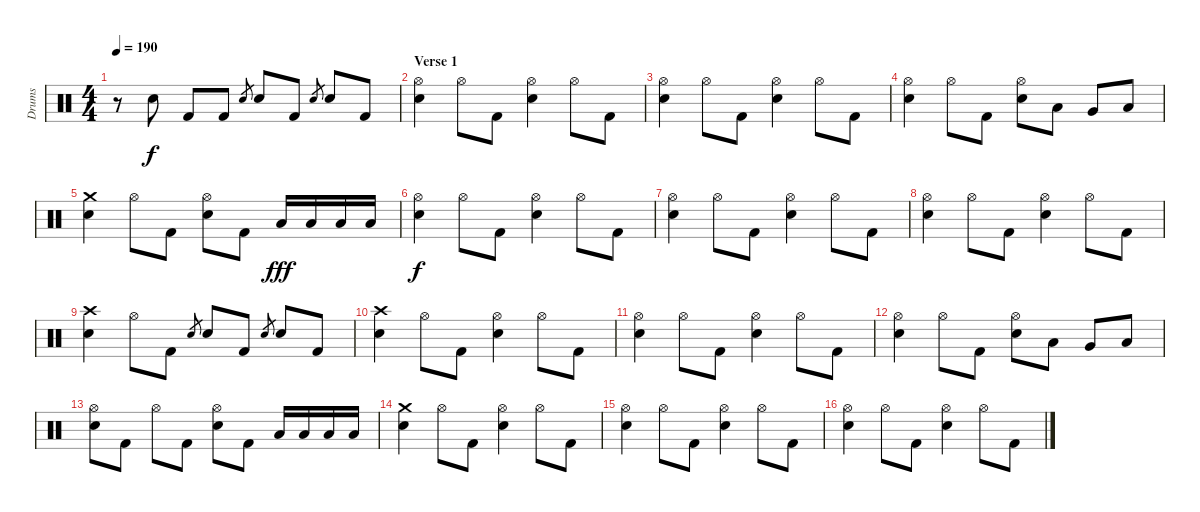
\track ("Drums" "Drums") {instrument percussion}
\staff {score}
\articulation defaults
\ts (4 4)
\tempo 190
\clef neutral
\ks c
r.8{dy f} "Electric Snare (hit)".8 "Kick (hit) 2".8 "Kick (hit) 2".8 "Electric Snare (hit)".8{gr} "Electric Snare (hit)".8 "Kick (hit) 2".8 "Electric Snare (hit)".8{gr} "Electric Snare (hit)".8 "Kick (hit) 2".8 |
\section ("" "Verse 1")
("Hi-Hat (open)" "Electric Snare (hit)").4 "Hi-Hat (open)".8 "Kick (hit) 2".8 ("Hi-Hat (open)" "Electric Snare (hit)").4 "Hi-Hat (open)".8 "Kick (hit) 2".8 |
("Hi-Hat (open)" "Electric Snare (hit)").4 "Hi-Hat (open)".8 "Kick (hit) 2".8 ("Hi-Hat (open)" "Electric Snare (hit)").4 "Hi-Hat (open)".8 "Kick (hit) 2".8 |
("Hi-Hat (open)" "Electric Snare (hit)").4 "Hi-Hat (open)".8 "Kick (hit) 2".8 ("Hi-Hat (open)" "Electric Snare (hit)").8 "Low Tom (hit)".8 "Very Low Tom (hit)".8 "Low Floor Tom (hit)".8 |
("Crash medium (hit)" "Electric Snare (hit)").4 "Hi-Hat (open)".8 "Kick (hit) 2".8 ("Hi-Hat (open)" "Electric Snare (hit)").8 "Kick (hit) 2".8 "Low Floor Tom (hit)".16{dy fff} "Low Floor Tom (hit)".16 "Low Floor Tom (hit)".16 "Low Floor Tom (hit)".16 |
("Hi-Hat (open)" "Electric Snare (hit)").4{dy f} "Hi-Hat (open)".8 "Kick (hit) 2".8 ("Hi-Hat (open)" "Electric Snare (hit)").4 "Hi-Hat (open)".8 "Kick (hit) 2".8 |
("Hi-Hat (open)" "Electric Snare (hit)").4 "Hi-Hat (open)".8 "Kick (hit) 2".8 ("Hi-Hat (open)" "Electric Snare (hit)").4 "Hi-Hat (open)".8 "Kick (hit) 2".8 |
("Hi-Hat (open)" "Electric Snare (hit)").4 "Hi-Hat (open)".8 "Kick (hit) 2".8 ("Hi-Hat (open)" "Electric Snare (hit)").4 "Hi-Hat (open)".8 "Kick (hit) 2".8 |
("Crash high (hit)" "Electric Snare (hit)").4 "Hi-Hat (open)".8 "Kick (hit) 2".8 "Electric Snare (hit)".8{gr} "Electric Snare (hit)".8 "Kick (hit) 2".8 "Electric Snare (hit)".8{gr} "Electric Snare (hit)".8 "Kick (hit) 2".8 |
("Crash high (hit)" "Electric Snare (hit)").4 "Hi-Hat (open)".8 "Kick (hit) 2".8 ("Hi-Hat (open)" "Electric Snare (hit)").4 "Hi-Hat (open)".8 "Kick (hit) 2".8 |
("Hi-Hat (open)" "Electric Snare (hit)").4 "Hi-Hat (open)".8 "Kick (hit) 2".8 ("Hi-Hat (open)" "Electric Snare (hit)").4 "Hi-Hat (open)".8 "Kick (hit) 2".8 |
("Hi-Hat (open)" "Electric Snare (hit)").4 "Hi-Hat (open)".8 "Kick (hit) 2".8 ("Hi-Hat (open)" "Electric Snare (hit)").8 "Low Tom (hit)".8 "Very Low Tom (hit)".8 "Low Floor Tom (hit)".8 |
("Hi-Hat (open)" "Electric Snare (hit)").8 "Kick (hit) 2".8 "Hi-Hat (open)".8 "Kick (hit) 2".8 ("Hi-Hat (open)" "Electric Snare (hit)").8 "Kick (hit) 2".8 "Low Floor Tom (hit)".16 "Low Floor Tom (hit)".16 "Low Floor Tom (hit)".16 "Low Floor Tom (hit)".16 |
("Crash medium (hit)" "Electric Snare (hit)").4 "Hi-Hat (open)".8 "Kick (hit) 2".8 ("Hi-Hat (open)" "Electric Snare (hit)").4 "Hi-Hat (open)".8 "Kick (hit) 2".8 |
("Hi-Hat (open)" "Electric Snare (hit)").4 "Hi-Hat (open)".8 "Kick (hit) 2".8 ("Hi-Hat (open)" "Electric Snare (hit)").4 "Hi-Hat (open)".8 "Kick (hit) 2".8 |
("Hi-Hat (open)" "Electric Snare (hit)").4 "Hi-Hat (open)".8 "Kick (hit) 2".8 ("Hi-Hat (open)" "Electric Snare (hit)").4 "Hi-Hat (open)".8 "Kick (hit) 2".8
